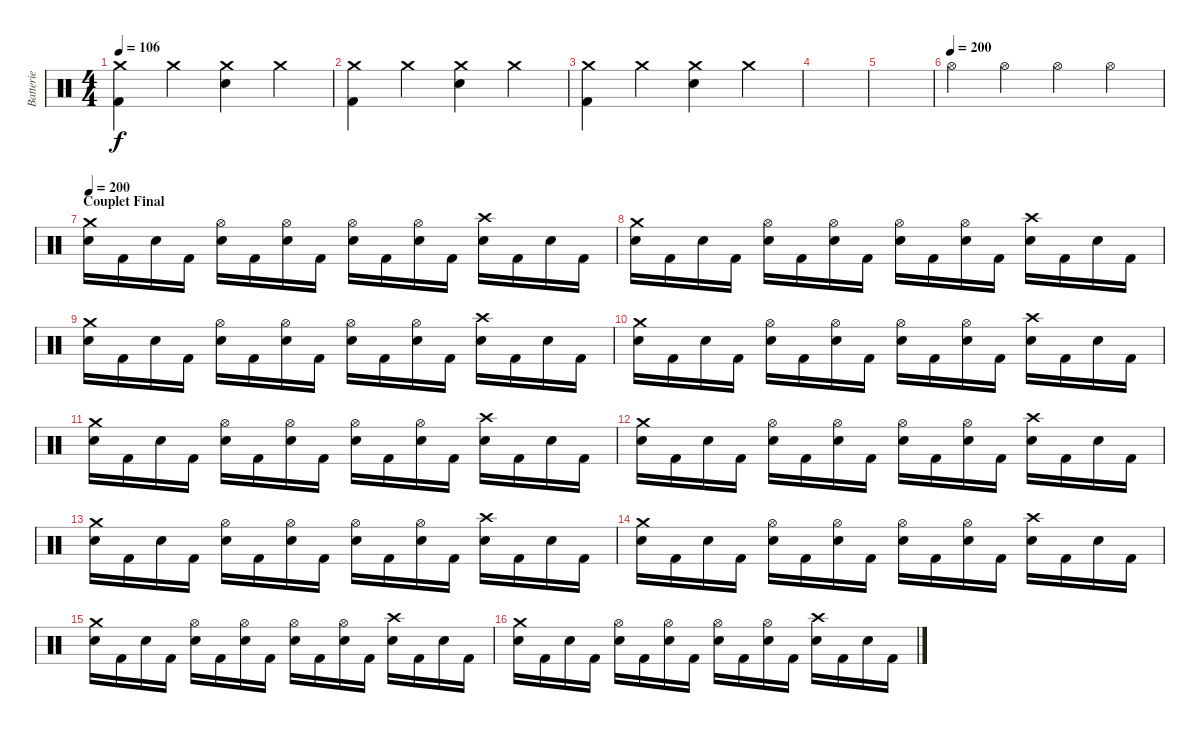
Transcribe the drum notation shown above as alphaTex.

\track ("Batterie" "Batterie") {instrument percussion}
\staff {score}
\articulation defaults
\ts (4 4)
\tempo 106
\clef neutral
\ks c
("Crash medium (hit)" "Kick (hit) 2").4{dy f} "Crash medium (hit)".4 ("Crash medium (hit)" "Snare (hit) 2").4 "Crash medium (hit)".4 |
("Crash medium (hit)" "Kick (hit) 2").4 "Crash medium (hit)".4 ("Crash medium (hit)" "Snare (hit) 2").4 "Crash medium (hit)".4 |
("Crash medium (hit)" "Kick (hit) 2").4 "Crash medium (hit)".4 ("Crash medium (hit)" "Snare (hit) 2").4 "Crash medium (hit)".4 |
|
|
\tempo (200)
"Hi-Hat (open)".4 "Hi-Hat (open)".4 "Hi-Hat (open)".4 "Hi-Hat (open)".4 |
\section ("" "Couplet Final")
\tempo 200
("Snare (hit) 2" "Crash medium (hit)").16 "Kick (hit) 2".16 "Snare (hit) 2".16 "Kick (hit) 2".16 ("Snare (hit) 2" "Hi-Hat (open)").16 "Kick (hit) 2".16 ("Snare (hit) 2" "Hi-Hat (open)").16 "Kick (hit) 2".16 ("Snare (hit) 2" "Hi-Hat (open)").16 "Kick (hit) 2".16 ("Snare (hit) 2" "Hi-Hat (open)").16 "Kick (hit) 2".16 ("Snare (hit) 2" "Crash high (hit)").16 "Kick (hit) 2".16 "Snare (hit) 2".16 "Kick (hit) 2".16 |
("Snare (hit) 2" "Crash medium (hit)").16 "Kick (hit) 2".16 "Snare (hit) 2".16 "Kick (hit) 2".16 ("Snare (hit) 2" "Hi-Hat (open)").16 "Kick (hit) 2".16 ("Snare (hit) 2" "Hi-Hat (open)").16 "Kick (hit) 2".16 ("Snare (hit) 2" "Hi-Hat (open)").16 "Kick (hit) 2".16 ("Snare (hit) 2" "Hi-Hat (open)").16 "Kick (hit) 2".16 ("Snare (hit) 2" "Crash high (hit)").16 "Kick (hit) 2".16 "Snare (hit) 2".16 "Kick (hit) 2".16 |
("Snare (hit) 2" "Crash medium (hit)").16 "Kick (hit) 2".16 "Snare (hit) 2".16 "Kick (hit) 2".16 ("Snare (hit) 2" "Hi-Hat (open)").16 "Kick (hit) 2".16 ("Snare (hit) 2" "Hi-Hat (open)").16 "Kick (hit) 2".16 ("Snare (hit) 2" "Hi-Hat (open)").16 "Kick (hit) 2".16 ("Snare (hit) 2" "Hi-Hat (open)").16 "Kick (hit) 2".16 ("Snare (hit) 2" "Crash high (hit)").16 "Kick (hit) 2".16 "Snare (hit) 2".16 "Kick (hit) 2".16 |
("Snare (hit) 2" "Crash medium (hit)").16 "Kick (hit) 2".16 "Snare (hit) 2".16 "Kick (hit) 2".16 ("Snare (hit) 2" "Hi-Hat (open)").16 "Kick (hit) 2".16 ("Snare (hit) 2" "Hi-Hat (open)").16 "Kick (hit) 2".16 ("Snare (hit) 2" "Hi-Hat (open)").16 "Kick (hit) 2".16 ("Snare (hit) 2" "Hi-Hat (open)").16 "Kick (hit) 2".16 ("Snare (hit) 2" "Crash high (hit)").16 "Kick (hit) 2".16 "Snare (hit) 2".16 "Kick (hit) 2".16 |
("Snare (hit) 2" "Crash medium (hit)").16 "Kick (hit) 2".16 "Snare (hit) 2".16 "Kick (hit) 2".16 ("Snare (hit) 2" "Hi-Hat (open)").16 "Kick (hit) 2".16 ("Snare (hit) 2" "Hi-Hat (open)").16 "Kick (hit) 2".16 ("Snare (hit) 2" "Hi-Hat (open)").16 "Kick (hit) 2".16 ("Snare (hit) 2" "Hi-Hat (open)").16 "Kick (hit) 2".16 ("Snare (hit) 2" "Crash high (hit)").16 "Kick (hit) 2".16 "Snare (hit) 2".16 "Kick (hit) 2".16 |
("Snare (hit) 2" "Crash medium (hit)").16 "Kick (hit) 2".16 "Snare (hit) 2".16 "Kick (hit) 2".16 ("Snare (hit) 2" "Hi-Hat (open)").16 "Kick (hit) 2".16 ("Snare (hit) 2" "Hi-Hat (open)").16 "Kick (hit) 2".16 ("Snare (hit) 2" "Hi-Hat (open)").16 "Kick (hit) 2".16 ("Snare (hit) 2" "Hi-Hat (open)").16 "Kick (hit) 2".16 ("Snare (hit) 2" "Crash high (hit)").16 "Kick (hit) 2".16 "Snare (hit) 2".16 "Kick (hit) 2".16 |
("Snare (hit) 2" "Crash medium (hit)").16 "Kick (hit) 2".16 "Snare (hit) 2".16 "Kick (hit) 2".16 ("Snare (hit) 2" "Hi-Hat (open)").16 "Kick (hit) 2".16 ("Snare (hit) 2" "Hi-Hat (open)").16 "Kick (hit) 2".16 ("Snare (hit) 2" "Hi-Hat (open)").16 "Kick (hit) 2".16 ("Snare (hit) 2" "Hi-Hat (open)").16 "Kick (hit) 2".16 ("Snare (hit) 2" "Crash high (hit)").16 "Kick (hit) 2".16 "Snare (hit) 2".16 "Kick (hit) 2".16 |
("Snare (hit) 2" "Crash medium (hit)").16 "Kick (hit) 2".16 "Snare (hit) 2".16 "Kick (hit) 2".16 ("Snare (hit) 2" "Hi-Hat (open)").16 "Kick (hit) 2".16 ("Snare (hit) 2" "Hi-Hat (open)").16 "Kick (hit) 2".16 ("Snare (hit) 2" "Hi-Hat (open)").16 "Kick (hit) 2".16 ("Snare (hit) 2" "Hi-Hat (open)").16 "Kick (hit) 2".16 ("Snare (hit) 2" "Crash high (hit)").16 "Kick (hit) 2".16 "Snare (hit) 2".16 "Kick (hit) 2".16 |
("Snare (hit) 2" "Crash medium (hit)").16 "Kick (hit) 2".16 "Snare (hit) 2".16 "Kick (hit) 2".16 ("Snare (hit) 2" "Hi-Hat (open)").16 "Kick (hit) 2".16 ("Snare (hit) 2" "Hi-Hat (open)").16 "Kick (hit) 2".16 ("Snare (hit) 2" "Hi-Hat (open)").16 "Kick (hit) 2".16 ("Snare (hit) 2" "Hi-Hat (open)").16 "Kick (hit) 2".16 ("Snare (hit) 2" "Crash high (hit)").16 "Kick (hit) 2".16 "Snare (hit) 2".16 "Kick (hit) 2".16 |
("Snare (hit) 2" "Crash medium (hit)").16 "Kick (hit) 2".16 "Snare (hit) 2".16 "Kick (hit) 2".16 ("Snare (hit) 2" "Hi-Hat (open)").16 "Kick (hit) 2".16 ("Snare (hit) 2" "Hi-Hat (open)").16 "Kick (hit) 2".16 ("Snare (hit) 2" "Hi-Hat (open)").16 "Kick (hit) 2".16 ("Snare (hit) 2" "Hi-Hat (open)").16 "Kick (hit) 2".16 ("Snare (hit) 2" "Crash high (hit)").16 "Kick (hit) 2".16 "Snare (hit) 2".16 "Kick (hit) 2".16
